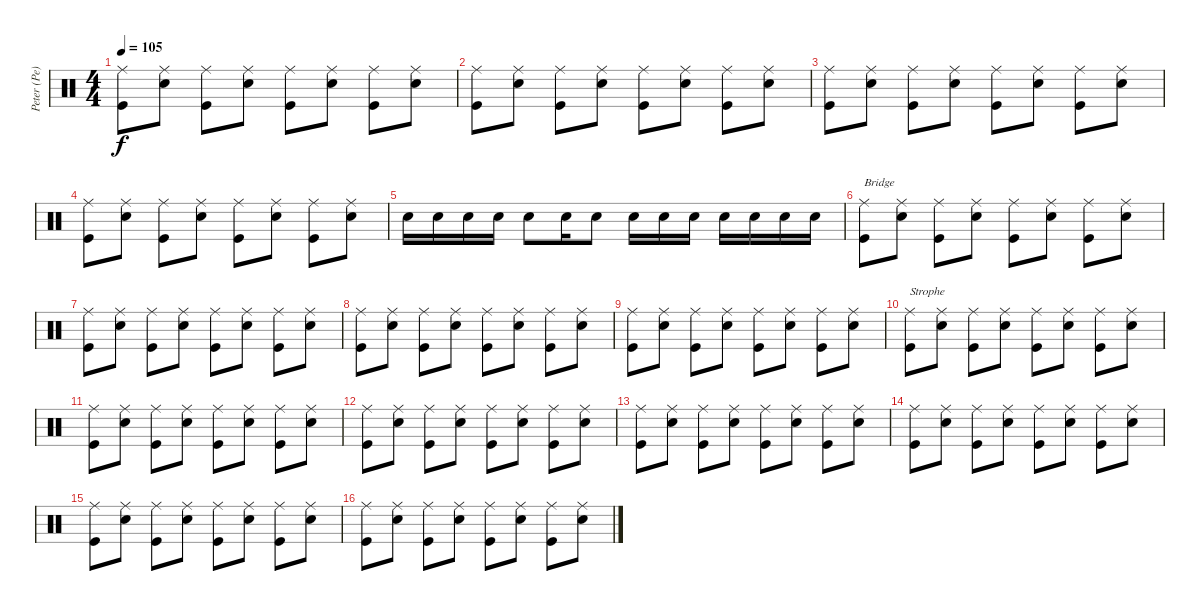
\track ("Peter (Pe) Schorowsky" "Peter (Pe)") {instrument percussion}
\staff {score}
\articulation defaults
\ts (4 4)
\tempo 105
\clef neutral
\ks c
("Ride (middle)" "Kick (hit)").8{dy f} ("Ride (middle)" "Snare (hit) 2").8 ("Ride (middle)" "Kick (hit)").8 ("Ride (middle)" "Snare (hit) 2").8 ("Ride (middle)" "Kick (hit)").8 ("Ride (middle)" "Snare (hit) 2").8 ("Ride (middle)" "Kick (hit)").8 ("Ride (middle)" "Snare (hit) 2").8 |
("Ride (middle)" "Kick (hit)").8 ("Ride (middle)" "Snare (hit) 2").8 ("Ride (middle)" "Kick (hit)").8 ("Ride (middle)" "Snare (hit) 2").8 ("Ride (middle)" "Kick (hit)").8 ("Ride (middle)" "Snare (hit) 2").8 ("Ride (middle)" "Kick (hit)").8 ("Ride (middle)" "Snare (hit) 2").8 |
("Ride (middle)" "Kick (hit)").8 ("Ride (middle)" "Snare (hit) 2").8 ("Ride (middle)" "Kick (hit)").8 ("Ride (middle)" "Snare (hit) 2").8 ("Ride (middle)" "Kick (hit)").8 ("Ride (middle)" "Snare (hit) 2").8 ("Ride (middle)" "Kick (hit)").8 ("Ride (middle)" "Snare (hit) 2").8 |
("Ride (middle)" "Kick (hit)").8 ("Ride (middle)" "Snare (hit) 2").8 ("Ride (middle)" "Kick (hit)").8 ("Ride (middle)" "Snare (hit) 2").8 ("Ride (middle)" "Kick (hit)").8 ("Ride (middle)" "Snare (hit) 2").8 ("Ride (middle)" "Kick (hit)").8 ("Ride (middle)" "Snare (hit) 2").8 |
"Snare (hit) 2".16 "Snare (hit) 2".16 "Snare (hit) 2".16 "Snare (hit) 2".16 "Snare (hit) 2".8 "Snare (hit) 2".16 "Snare (hit) 2".8 "Snare (hit) 2".16 "Snare (hit) 2".16 "Snare (hit) 2".16 "Snare (hit) 2".16 "Snare (hit) 2".16 "Snare (hit) 2".16 "Snare (hit) 2".16 |
("Ride (middle)" "Kick (hit)").8{txt "Bridge"} ("Ride (middle)" "Snare (hit) 2").8 ("Ride (middle)" "Kick (hit)").8 ("Ride (middle)" "Snare (hit) 2").8 ("Ride (middle)" "Kick (hit)").8 ("Ride (middle)" "Snare (hit) 2").8 ("Ride (middle)" "Kick (hit)").8 ("Ride (middle)" "Snare (hit) 2").8 |
("Ride (middle)" "Kick (hit)").8 ("Ride (middle)" "Snare (hit) 2").8 ("Ride (middle)" "Kick (hit)").8 ("Ride (middle)" "Snare (hit) 2").8 ("Ride (middle)" "Kick (hit)").8 ("Ride (middle)" "Snare (hit) 2").8 ("Ride (middle)" "Kick (hit)").8 ("Ride (middle)" "Snare (hit) 2").8 |
("Ride (middle)" "Kick (hit)").8 ("Ride (middle)" "Snare (hit) 2").8 ("Ride (middle)" "Kick (hit)").8 ("Ride (middle)" "Snare (hit) 2").8 ("Ride (middle)" "Kick (hit)").8 ("Ride (middle)" "Snare (hit) 2").8 ("Ride (middle)" "Kick (hit)").8 ("Ride (middle)" "Snare (hit) 2").8 |
("Ride (middle)" "Kick (hit)").8 ("Ride (middle)" "Snare (hit) 2").8 ("Ride (middle)" "Kick (hit)").8 ("Ride (middle)" "Snare (hit) 2").8 ("Ride (middle)" "Kick (hit)").8 ("Ride (middle)" "Snare (hit) 2").8 ("Ride (middle)" "Kick (hit)").8 ("Ride (middle)" "Snare (hit) 2").8 |
("Ride (middle)" "Kick (hit)").8{txt "Strophe"} ("Ride (middle)" "Snare (hit) 2").8 ("Ride (middle)" "Kick (hit)").8 ("Ride (middle)" "Snare (hit) 2").8 ("Ride (middle)" "Kick (hit)").8 ("Ride (middle)" "Snare (hit) 2").8 ("Ride (middle)" "Kick (hit)").8 ("Ride (middle)" "Snare (hit) 2").8 |
("Ride (middle)" "Kick (hit)").8 ("Ride (middle)" "Snare (hit) 2").8 ("Ride (middle)" "Kick (hit)").8 ("Ride (middle)" "Snare (hit) 2").8 ("Ride (middle)" "Kick (hit)").8 ("Ride (middle)" "Snare (hit) 2").8 ("Ride (middle)" "Kick (hit)").8 ("Ride (middle)" "Snare (hit) 2").8 |
("Ride (middle)" "Kick (hit)").8 ("Ride (middle)" "Snare (hit) 2").8 ("Ride (middle)" "Kick (hit)").8 ("Ride (middle)" "Snare (hit) 2").8 ("Ride (middle)" "Kick (hit)").8 ("Ride (middle)" "Snare (hit) 2").8 ("Ride (middle)" "Kick (hit)").8 ("Ride (middle)" "Snare (hit) 2").8 |
("Ride (middle)" "Kick (hit)").8 ("Ride (middle)" "Snare (hit) 2").8 ("Ride (middle)" "Kick (hit)").8 ("Ride (middle)" "Snare (hit) 2").8 ("Ride (middle)" "Kick (hit)").8 ("Ride (middle)" "Snare (hit) 2").8 ("Ride (middle)" "Kick (hit)").8 ("Ride (middle)" "Snare (hit) 2").8 |
("Ride (middle)" "Kick (hit)").8 ("Ride (middle)" "Snare (hit) 2").8 ("Ride (middle)" "Kick (hit)").8 ("Ride (middle)" "Snare (hit) 2").8 ("Ride (middle)" "Kick (hit)").8 ("Ride (middle)" "Snare (hit) 2").8 ("Ride (middle)" "Kick (hit)").8 ("Ride (middle)" "Snare (hit) 2").8 |
("Ride (middle)" "Kick (hit)").8 ("Ride (middle)" "Snare (hit) 2").8 ("Ride (middle)" "Kick (hit)").8 ("Ride (middle)" "Snare (hit) 2").8 ("Ride (middle)" "Kick (hit)").8 ("Ride (middle)" "Snare (hit) 2").8 ("Ride (middle)" "Kick (hit)").8 ("Ride (middle)" "Snare (hit) 2").8 |
("Ride (middle)" "Kick (hit)").8 ("Ride (middle)" "Snare (hit) 2").8 ("Ride (middle)" "Kick (hit)").8 ("Ride (middle)" "Snare (hit) 2").8 ("Ride (middle)" "Kick (hit)").8 ("Ride (middle)" "Snare (hit) 2").8 ("Ride (middle)" "Kick (hit)").8 ("Ride (middle)" "Snare (hit) 2").8
